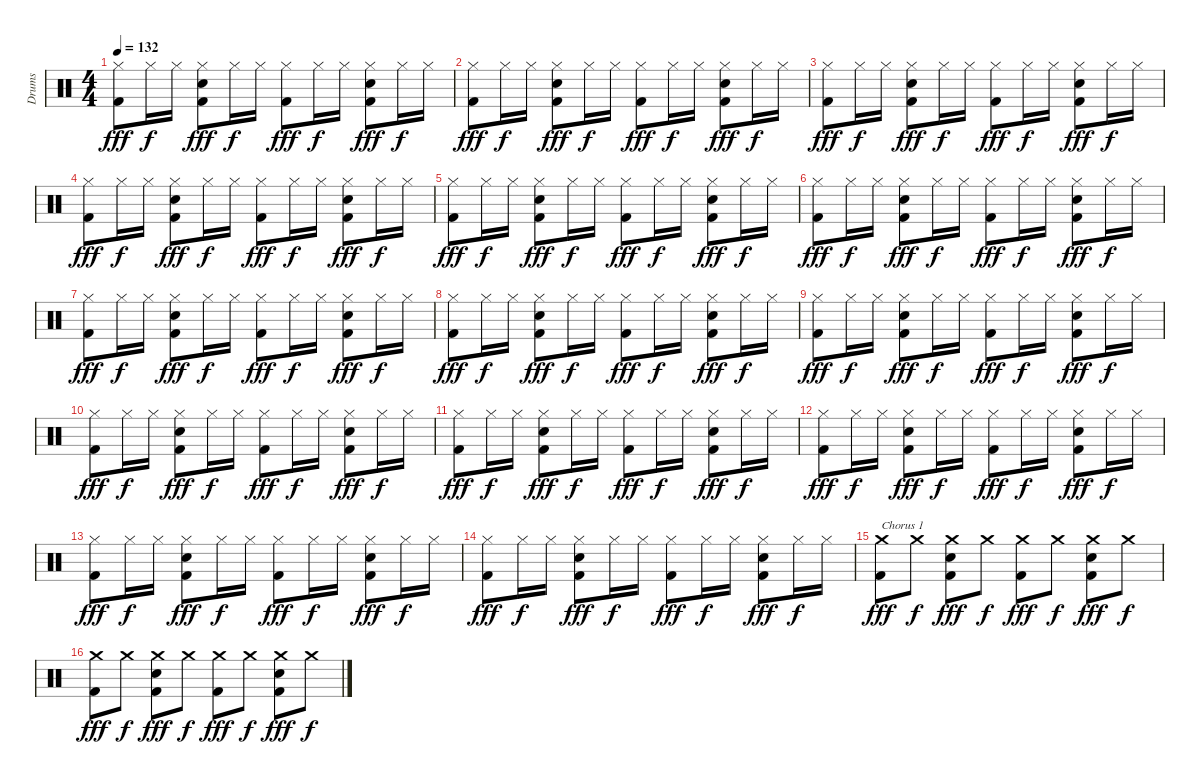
\track ("Drums" "Drums") {instrument percussion}
\staff {score}
\articulation defaults
\ts (4 4)
\tempo 132
\clef neutral
\ks c
("Hi-Hat (closed)" "Kick (hit) 2").8{dy fff} "Hi-Hat (closed)".16{dy f} "Hi-Hat (closed)".16 ("Hi-Hat (closed)" "Snare (hit) 2" "Kick (hit) 2").8{dy fff} "Hi-Hat (closed)".16{dy f} "Hi-Hat (closed)".16 ("Hi-Hat (closed)" "Kick (hit) 2").8{dy fff} "Hi-Hat (closed)".16{dy f} "Hi-Hat (closed)".16 ("Hi-Hat (closed)" "Snare (hit) 2" "Kick (hit) 2").8{dy fff} "Hi-Hat (closed)".16{dy f} "Hi-Hat (closed)".16 |
("Hi-Hat (closed)" "Kick (hit) 2").8{dy fff} "Hi-Hat (closed)".16{dy f} "Hi-Hat (closed)".16 ("Hi-Hat (closed)" "Snare (hit) 2" "Kick (hit) 2").8{dy fff} "Hi-Hat (closed)".16{dy f} "Hi-Hat (closed)".16 ("Hi-Hat (closed)" "Kick (hit) 2").8{dy fff} "Hi-Hat (closed)".16{dy f} "Hi-Hat (closed)".16 ("Hi-Hat (closed)" "Snare (hit) 2" "Kick (hit) 2").8{dy fff} "Hi-Hat (closed)".16{dy f} "Hi-Hat (closed)".16 |
("Hi-Hat (closed)" "Kick (hit) 2").8{dy fff} "Hi-Hat (closed)".16{dy f} "Hi-Hat (closed)".16 ("Hi-Hat (closed)" "Snare (hit) 2" "Kick (hit) 2").8{dy fff} "Hi-Hat (closed)".16{dy f} "Hi-Hat (closed)".16 ("Hi-Hat (closed)" "Kick (hit) 2").8{dy fff} "Hi-Hat (closed)".16{dy f} "Hi-Hat (closed)".16 ("Hi-Hat (closed)" "Snare (hit) 2" "Kick (hit) 2").8{dy fff} "Hi-Hat (closed)".16{dy f} "Hi-Hat (closed)".16 |
("Hi-Hat (closed)" "Kick (hit) 2").8{dy fff} "Hi-Hat (closed)".16{dy f} "Hi-Hat (closed)".16 ("Hi-Hat (closed)" "Snare (hit) 2" "Kick (hit) 2").8{dy fff} "Hi-Hat (closed)".16{dy f} "Hi-Hat (closed)".16 ("Hi-Hat (closed)" "Kick (hit) 2").8{dy fff} "Hi-Hat (closed)".16{dy f} "Hi-Hat (closed)".16 ("Hi-Hat (closed)" "Snare (hit) 2" "Kick (hit) 2").8{dy fff} "Hi-Hat (closed)".16{dy f} "Hi-Hat (closed)".16 |
("Hi-Hat (closed)" "Kick (hit) 2").8{dy fff} "Hi-Hat (closed)".16{dy f} "Hi-Hat (closed)".16 ("Hi-Hat (closed)" "Snare (hit) 2" "Kick (hit) 2").8{dy fff} "Hi-Hat (closed)".16{dy f} "Hi-Hat (closed)".16 ("Hi-Hat (closed)" "Kick (hit) 2").8{dy fff} "Hi-Hat (closed)".16{dy f} "Hi-Hat (closed)".16 ("Hi-Hat (closed)" "Snare (hit) 2" "Kick (hit) 2").8{dy fff} "Hi-Hat (closed)".16{dy f} "Hi-Hat (closed)".16 |
("Hi-Hat (closed)" "Kick (hit) 2").8{dy fff} "Hi-Hat (closed)".16{dy f} "Hi-Hat (closed)".16 ("Hi-Hat (closed)" "Snare (hit) 2" "Kick (hit) 2").8{dy fff} "Hi-Hat (closed)".16{dy f} "Hi-Hat (closed)".16 ("Hi-Hat (closed)" "Kick (hit) 2").8{dy fff} "Hi-Hat (closed)".16{dy f} "Hi-Hat (closed)".16 ("Hi-Hat (closed)" "Snare (hit) 2" "Kick (hit) 2").8{dy fff} "Hi-Hat (closed)".16{dy f} "Hi-Hat (closed)".16 |
("Hi-Hat (closed)" "Kick (hit) 2").8{dy fff} "Hi-Hat (closed)".16{dy f} "Hi-Hat (closed)".16 ("Hi-Hat (closed)" "Snare (hit) 2" "Kick (hit) 2").8{dy fff} "Hi-Hat (closed)".16{dy f} "Hi-Hat (closed)".16 ("Hi-Hat (closed)" "Kick (hit) 2").8{dy fff} "Hi-Hat (closed)".16{dy f} "Hi-Hat (closed)".16 ("Hi-Hat (closed)" "Snare (hit) 2" "Kick (hit) 2").8{dy fff} "Hi-Hat (closed)".16{dy f} "Hi-Hat (closed)".16 |
("Hi-Hat (closed)" "Kick (hit) 2").8{dy fff} "Hi-Hat (closed)".16{dy f} "Hi-Hat (closed)".16 ("Hi-Hat (closed)" "Snare (hit) 2" "Kick (hit) 2").8{dy fff} "Hi-Hat (closed)".16{dy f} "Hi-Hat (closed)".16 ("Hi-Hat (closed)" "Kick (hit) 2").8{dy fff} "Hi-Hat (closed)".16{dy f} "Hi-Hat (closed)".16 ("Hi-Hat (closed)" "Snare (hit) 2" "Kick (hit) 2").8{dy fff} "Hi-Hat (closed)".16{dy f} "Hi-Hat (closed)".16 |
("Hi-Hat (closed)" "Kick (hit) 2").8{dy fff} "Hi-Hat (closed)".16{dy f} "Hi-Hat (closed)".16 ("Hi-Hat (closed)" "Snare (hit) 2" "Kick (hit) 2").8{dy fff} "Hi-Hat (closed)".16{dy f} "Hi-Hat (closed)".16 ("Hi-Hat (closed)" "Kick (hit) 2").8{dy fff} "Hi-Hat (closed)".16{dy f} "Hi-Hat (closed)".16 ("Hi-Hat (closed)" "Snare (hit) 2" "Kick (hit) 2").8{dy fff} "Hi-Hat (closed)".16{dy f} "Hi-Hat (closed)".16 |
("Hi-Hat (closed)" "Kick (hit) 2").8{dy fff} "Hi-Hat (closed)".16{dy f} "Hi-Hat (closed)".16 ("Hi-Hat (closed)" "Snare (hit) 2" "Kick (hit) 2").8{dy fff} "Hi-Hat (closed)".16{dy f} "Hi-Hat (closed)".16 ("Hi-Hat (closed)" "Kick (hit) 2").8{dy fff} "Hi-Hat (closed)".16{dy f} "Hi-Hat (closed)".16 ("Hi-Hat (closed)" "Snare (hit) 2" "Kick (hit) 2").8{dy fff} "Hi-Hat (closed)".16{dy f} "Hi-Hat (closed)".16 |
("Hi-Hat (closed)" "Kick (hit) 2").8{dy fff} "Hi-Hat (closed)".16{dy f} "Hi-Hat (closed)".16 ("Hi-Hat (closed)" "Snare (hit) 2" "Kick (hit) 2").8{dy fff} "Hi-Hat (closed)".16{dy f} "Hi-Hat (closed)".16 ("Hi-Hat (closed)" "Kick (hit) 2").8{dy fff} "Hi-Hat (closed)".16{dy f} "Hi-Hat (closed)".16 ("Hi-Hat (closed)" "Snare (hit) 2" "Kick (hit) 2").8{dy fff} "Hi-Hat (closed)".16{dy f} "Hi-Hat (closed)".16 |
("Hi-Hat (closed)" "Kick (hit) 2").8{dy fff} "Hi-Hat (closed)".16{dy f} "Hi-Hat (closed)".16 ("Hi-Hat (closed)" "Snare (hit) 2" "Kick (hit) 2").8{dy fff} "Hi-Hat (closed)".16{dy f} "Hi-Hat (closed)".16 ("Hi-Hat (closed)" "Kick (hit) 2").8{dy fff} "Hi-Hat (closed)".16{dy f} "Hi-Hat (closed)".16 ("Hi-Hat (closed)" "Snare (hit) 2" "Kick (hit) 2").8{dy fff} "Hi-Hat (closed)".16{dy f} "Hi-Hat (closed)".16 |
("Hi-Hat (closed)" "Kick (hit) 2").8{dy fff} "Hi-Hat (closed)".16{dy f} "Hi-Hat (closed)".16 ("Hi-Hat (closed)" "Snare (hit) 2" "Kick (hit) 2").8{dy fff} "Hi-Hat (closed)".16{dy f} "Hi-Hat (closed)".16 ("Hi-Hat (closed)" "Kick (hit) 2").8{dy fff} "Hi-Hat (closed)".16{dy f} "Hi-Hat (closed)".16 ("Hi-Hat (closed)" "Snare (hit) 2" "Kick (hit) 2").8{dy fff} "Hi-Hat (closed)".16{dy f} "Hi-Hat (closed)".16 |
("Hi-Hat (closed)" "Kick (hit) 2").8{dy fff} "Hi-Hat (closed)".16{dy f} "Hi-Hat (closed)".16 ("Hi-Hat (closed)" "Snare (hit) 2" "Kick (hit) 2").8{dy fff} "Hi-Hat (closed)".16{dy f} "Hi-Hat (closed)".16 ("Hi-Hat (closed)" "Kick (hit) 2").8{dy fff} "Hi-Hat (closed)".16{dy f} "Hi-Hat (closed)".16 ("Hi-Hat (closed)" "Snare (hit) 2" "Kick (hit) 2").8{dy fff} "Hi-Hat (closed)".16{dy f} "Hi-Hat (closed)".16 |
("Crash medium (hit)" "Kick (hit) 2").8{txt "Chorus 1" dy fff} "Crash medium (hit)".8{dy f} ("Crash medium (hit)" "Snare (hit) 2" "Kick (hit) 2").8{dy fff} "Crash medium (hit)".8{dy f} ("Crash medium (hit)" "Kick (hit) 2").8{dy fff} "Crash medium (hit)".8{dy f} ("Crash medium (hit)" "Snare (hit) 2" "Kick (hit) 2").8{dy fff} "Crash medium (hit)".8{dy f} |
("Crash medium (hit)" "Kick (hit) 2").8{dy fff} "Crash medium (hit)".8{dy f} ("Crash medium (hit)" "Snare (hit) 2" "Kick (hit) 2").8{dy fff} "Crash medium (hit)".8{dy f} ("Crash medium (hit)" "Kick (hit) 2").8{dy fff} "Crash medium (hit)".8{dy f} ("Crash medium (hit)" "Snare (hit) 2" "Kick (hit) 2").8{dy fff} "Crash medium (hit)".8{dy f}
